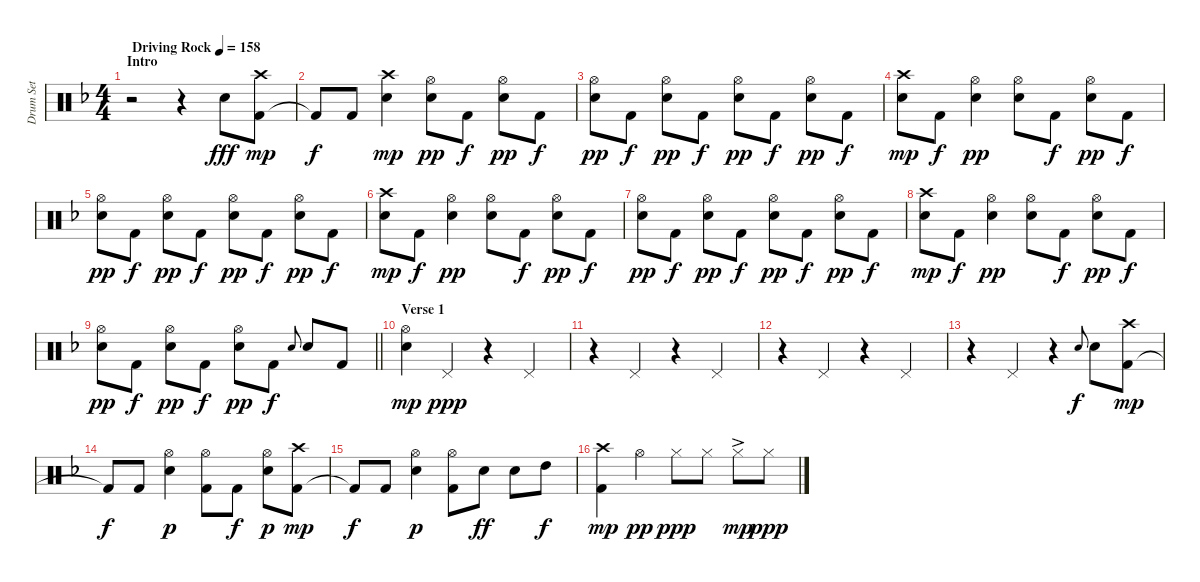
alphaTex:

\track ("Drum Set" "Drum Set") {instrument percussion}
\staff {score}
\articulation defaults
\ts (4 4)
\section ("" "Intro")
\tempo (158 "Driving Rock")
\clef neutral
\ks f
r.2{dy fff} r.4 "Electric Snare (hit)".8 ("Kick (hit) 2" "Crash high (hit)").8{dy mp} |
"Kick (hit) 2"{t}.8{dy f} "Kick (hit) 2".8 ("Electric Snare (hit)" "Crash high (hit)").4{dy mp} ("Electric Snare (hit)" "Hi-Hat (open)").8{dy pp} "Kick (hit) 2".8{dy f} ("Electric Snare (hit)" "Hi-Hat (open)").8{dy pp} "Kick (hit) 2".8{dy f} |
("Electric Snare (hit)" "Hi-Hat (open)").8{dy pp} "Kick (hit) 2".8{dy f} ("Electric Snare (hit)" "Hi-Hat (open)").8{dy pp} "Kick (hit) 2".8{dy f} ("Electric Snare (hit)" "Hi-Hat (open)").8{dy pp} "Kick (hit) 2".8{dy f} ("Electric Snare (hit)" "Hi-Hat (open)").8{dy pp} "Kick (hit) 2".8{dy f} |
("Electric Snare (hit)" "Crash high (hit)").8{dy mp} "Kick (hit) 2".8{dy f} ("Electric Snare (hit)" "Hi-Hat (open)").4{dy pp} ("Electric Snare (hit)" "Hi-Hat (open)").8 "Kick (hit) 2".8{dy f} ("Electric Snare (hit)" "Hi-Hat (open)").8{dy pp} "Kick (hit) 2".8{dy f} |
("Electric Snare (hit)" "Hi-Hat (open)").8{dy pp} "Kick (hit) 2".8{dy f} ("Electric Snare (hit)" "Hi-Hat (open)").8{dy pp} "Kick (hit) 2".8{dy f} ("Electric Snare (hit)" "Hi-Hat (open)").8{dy pp} "Kick (hit) 2".8{dy f} ("Electric Snare (hit)" "Hi-Hat (open)").8{dy pp} "Kick (hit) 2".8{dy f} |
("Electric Snare (hit)" "Crash high (hit)").8{dy mp} "Kick (hit) 2".8{dy f} ("Electric Snare (hit)" "Hi-Hat (open)").4{dy pp} ("Electric Snare (hit)" "Hi-Hat (open)").8 "Kick (hit) 2".8{dy f} ("Electric Snare (hit)" "Hi-Hat (open)").8{dy pp} "Kick (hit) 2".8{dy f} |
("Electric Snare (hit)" "Hi-Hat (open)").8{dy pp} "Kick (hit) 2".8{dy f} ("Electric Snare (hit)" "Hi-Hat (open)").8{dy pp} "Kick (hit) 2".8{dy f} ("Electric Snare (hit)" "Hi-Hat (open)").8{dy pp} "Kick (hit) 2".8{dy f} ("Electric Snare (hit)" "Hi-Hat (open)").8{dy pp} "Kick (hit) 2".8{dy f} |
("Electric Snare (hit)" "Crash high (hit)").8{dy mp} "Kick (hit) 2".8{dy f} ("Electric Snare (hit)" "Hi-Hat (open)").4{dy pp} ("Electric Snare (hit)" "Hi-Hat (open)").8 "Kick (hit) 2".8{dy f} ("Electric Snare (hit)" "Hi-Hat (open)").8{dy pp} "Kick (hit) 2".8{dy f} |
\barLineRight lightlight
("Electric Snare (hit)" "Hi-Hat (open)").8{dy pp} "Kick (hit) 2".8{dy f} ("Electric Snare (hit)" "Hi-Hat (open)").8{dy pp} "Kick (hit) 2".8{dy f} ("Electric Snare (hit)" "Hi-Hat (open)").8{dy pp} "Kick (hit) 2".8{dy f} "Electric Snare (hit)".8{gr onbeat} "Electric Snare (hit)".8 "Kick (hit) 2".8 |
\section ("" "Verse 1")
("Electric Snare (hit)" "Hi-Hat (open)").4{dy mp} "Pedal Hi-Hat (hit)".4{dy ppp} r.4 "Pedal Hi-Hat (hit)".4 |
r.4 "Pedal Hi-Hat (hit)".4 r.4 "Pedal Hi-Hat (hit)".4 |
r.4 "Pedal Hi-Hat (hit)".4 r.4 "Pedal Hi-Hat (hit)".4 |
r.4 "Pedal Hi-Hat (hit)".4 r.4 "Electric Snare (hit)".8{gr onbeat dy f} "Electric Snare (hit)".8 ("Kick (hit) 2" "Crash high (hit)").8{dy mp} |
"Kick (hit) 2"{t}.8{dy f} "Kick (hit) 2".8 ("Electric Snare (hit)" "Hi-Hat (open)").4{dy p} ("Kick (hit) 2" "Hi-Hat (open)").8 "Kick (hit) 2".8{dy f} ("Electric Snare (hit)" "Hi-Hat (open)").8{dy p} ("Kick (hit) 2" "Crash high (hit)").8{dy mp} |
"Kick (hit) 2"{t}.8{dy f} "Kick (hit) 2".8 ("Electric Snare (hit)" "Hi-Hat (open)").4{dy p} ("Kick (hit) 2" "Hi-Hat (open)").8 "Electric Snare (hit)".8{dy ff} "Electric Snare (hit)".8 "High Tom (hit)".8{dy f} |
("Kick (hit) 2" "Crash high (hit)").4{dy mp} "Hi-Hat (open)".4{dy pp} "Hi-Hat (closed)".8{dy ppp volume 2} "Hi-Hat (closed)".8 "Hi-Hat (closed)"{ac}.8{dy mp} "Hi-Hat (closed)".8{dy ppp}
